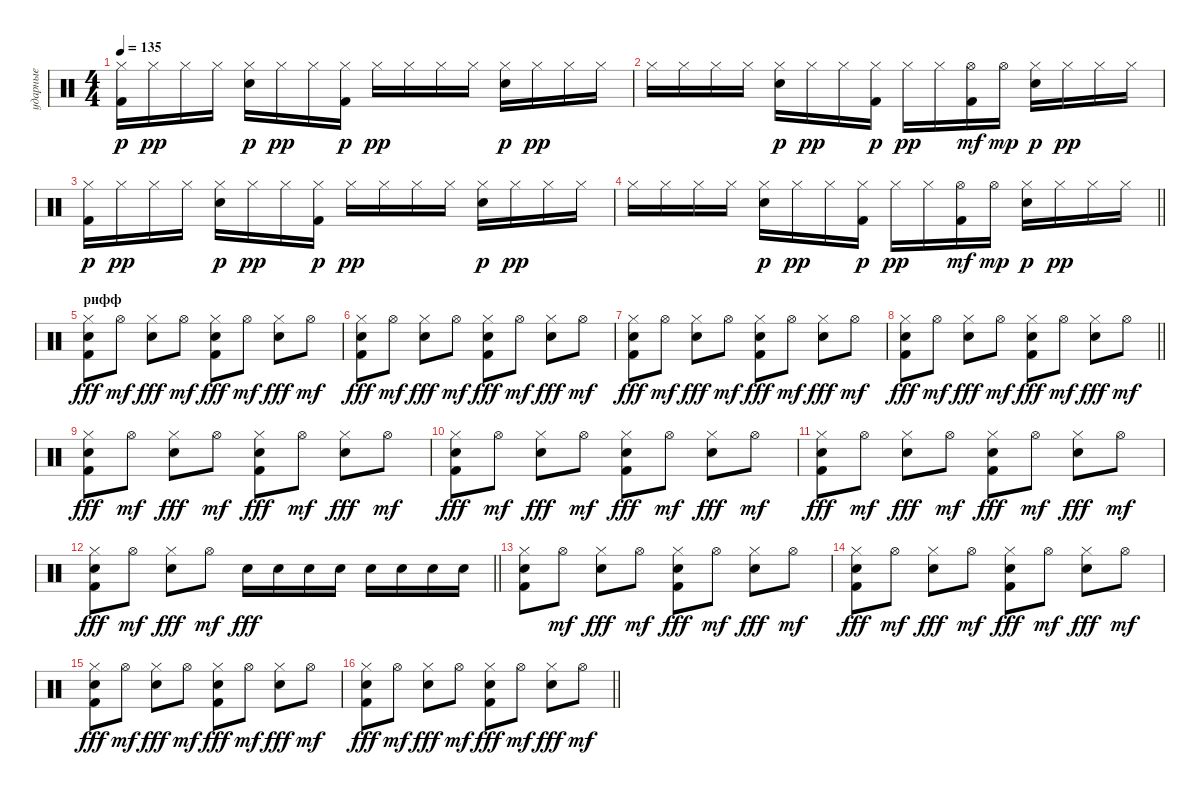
\track ("ударные" "ударные") {instrument percussion}
\staff {score}
\articulation defaults
\ts (4 4)
\tempo 135
\clef neutral
\ks c
("Hi-Hat (closed)" "Kick (hit) 2").16{dy p} "Hi-Hat (closed)".16{dy pp} "Hi-Hat (closed)".16 "Hi-Hat (closed)".16 ("Hi-Hat (closed)" "Electric Snare (hit)").16{dy p} "Hi-Hat (closed)".16{dy pp} "Hi-Hat (closed)".16 ("Hi-Hat (closed)" "Kick (hit) 2").16{dy p} "Hi-Hat (closed)".16{dy pp} "Hi-Hat (closed)".16 "Hi-Hat (closed)".16 "Hi-Hat (closed)".16 ("Hi-Hat (closed)" "Electric Snare (hit)").16{dy p} "Hi-Hat (closed)".16{dy pp} "Hi-Hat (closed)".16 "Hi-Hat (closed)".16 |
"Hi-Hat (closed)".16 "Hi-Hat (closed)".16 "Hi-Hat (closed)".16 "Hi-Hat (closed)".16 ("Hi-Hat (closed)" "Electric Snare (hit)").16{dy p} "Hi-Hat (closed)".16{dy pp} "Hi-Hat (closed)".16 ("Hi-Hat (closed)" "Kick (hit) 2").16{dy p} "Hi-Hat (closed)".16{dy pp} "Hi-Hat (closed)".16 ("Hi-Hat (open)" "Kick (hit) 2").16{dy mf} "Hi-Hat (open)".16{dy mp} ("Hi-Hat (closed)" "Electric Snare (hit)").16{dy p} "Hi-Hat (closed)".16{dy pp} "Hi-Hat (closed)".16 "Hi-Hat (closed)".16 |
("Hi-Hat (closed)" "Kick (hit) 2").16{dy p} "Hi-Hat (closed)".16{dy pp} "Hi-Hat (closed)".16 "Hi-Hat (closed)".16 ("Hi-Hat (closed)" "Electric Snare (hit)").16{dy p} "Hi-Hat (closed)".16{dy pp} "Hi-Hat (closed)".16 ("Hi-Hat (closed)" "Kick (hit) 2").16{dy p} "Hi-Hat (closed)".16{dy pp} "Hi-Hat (closed)".16 "Hi-Hat (closed)".16 "Hi-Hat (closed)".16 ("Hi-Hat (closed)" "Electric Snare (hit)").16{dy p} "Hi-Hat (closed)".16{dy pp} "Hi-Hat (closed)".16 "Hi-Hat (closed)".16 |
\barLineRight lightlight "Hi-Hat (closed)".16 "Hi-Hat (closed)".16 "Hi-Hat (closed)".16 "Hi-Hat (closed)".16
("Hi-Hat (closed)" "Electric Snare (hit)").16{dy p} "Hi-Hat (closed)".16{dy pp} "Hi-Hat (closed)".16 ("Hi-Hat (closed)" "Kick (hit) 2").16{dy p} "Hi-Hat (closed)".16{dy pp} "Hi-Hat (closed)".16 ("Hi-Hat (open)" "Kick (hit) 2").16{dy mf} "Hi-Hat (open)".16{dy mp} ("Hi-Hat (closed)" "Electric Snare (hit)").16{dy p} "Hi-Hat (closed)".16{dy pp} "Hi-Hat (closed)".16 "Hi-Hat (closed)".16 |
\section ("" "рифф")
("Hi-Hat (closed)" "Electric Snare (hit)" "Kick (hit) 2").8{dy fff} "Hi-Hat (open)".8{dy mf} ("Hi-Hat (closed)" "Snare (hit) 2").8{dy fff} "Hi-Hat (open)".8{dy mf} ("Hi-Hat (closed)" "Electric Snare (hit)" "Kick (hit) 2").8{dy fff} "Hi-Hat (open)".8{dy mf} ("Hi-Hat (closed)" "Snare (hit) 2").8{dy fff} "Hi-Hat (open)".8{dy mf} |
("Hi-Hat (closed)" "Electric Snare (hit)" "Kick (hit) 2").8{dy fff} "Hi-Hat (open)".8{dy mf} ("Hi-Hat (closed)" "Snare (hit) 2").8{dy fff} "Hi-Hat (open)".8{dy mf} ("Hi-Hat (closed)" "Electric Snare (hit)" "Kick (hit) 2").8{dy fff} "Hi-Hat (open)".8{dy mf} ("Hi-Hat (closed)" "Snare (hit) 2").8{dy fff} "Hi-Hat (open)".8{dy mf} |
("Hi-Hat (closed)" "Electric Snare (hit)" "Kick (hit) 2").8{dy fff} "Hi-Hat (open)".8{dy mf} ("Hi-Hat (closed)" "Snare (hit) 2").8{dy fff} "Hi-Hat (open)".8{dy mf} ("Hi-Hat (closed)" "Electric Snare (hit)" "Kick (hit) 2").8{dy fff} "Hi-Hat (open)".8{dy mf} ("Hi-Hat (closed)" "Snare (hit) 2").8{dy fff} "Hi-Hat (open)".8{dy mf} |
\barLineRight lightlight
("Hi-Hat (closed)" "Electric Snare (hit)" "Kick (hit) 2").8{dy fff} "Hi-Hat (open)".8{dy mf} ("Hi-Hat (closed)" "Snare (hit) 2").8{dy fff} "Hi-Hat (open)".8{dy mf} ("Hi-Hat (closed)" "Electric Snare (hit)" "Kick (hit) 2").8{dy fff} "Hi-Hat (open)".8{dy mf} ("Hi-Hat (closed)" "Snare (hit) 2").8{dy fff} "Hi-Hat (open)".8{dy mf} |
("Hi-Hat (closed)" "Electric Snare (hit)" "Kick (hit) 2").8{dy fff} "Hi-Hat (open)".8{dy mf} ("Hi-Hat (closed)" "Snare (hit) 2").8{dy fff} "Hi-Hat (open)".8{dy mf} ("Hi-Hat (closed)" "Electric Snare (hit)" "Kick (hit) 2").8{dy fff} "Hi-Hat (open)".8{dy mf} ("Hi-Hat (closed)" "Snare (hit) 2").8{dy fff} "Hi-Hat (open)".8{dy mf} |
("Hi-Hat (closed)" "Electric Snare (hit)" "Kick (hit) 2").8{dy fff} "Hi-Hat (open)".8{dy mf} ("Hi-Hat (closed)" "Snare (hit) 2").8{dy fff} "Hi-Hat (open)".8{dy mf} ("Hi-Hat (closed)" "Electric Snare (hit)" "Kick (hit) 2").8{dy fff} "Hi-Hat (open)".8{dy mf} ("Hi-Hat (closed)" "Snare (hit) 2").8{dy fff} "Hi-Hat (open)".8{dy mf} |
("Hi-Hat (closed)" "Electric Snare (hit)" "Kick (hit) 2").8{dy fff} "Hi-Hat (open)".8{dy mf} ("Hi-Hat (closed)" "Snare (hit) 2").8{dy fff} "Hi-Hat (open)".8{dy mf} ("Hi-Hat (closed)" "Electric Snare (hit)" "Kick (hit) 2").8{dy fff} "Hi-Hat (open)".8{dy mf} ("Hi-Hat (closed)" "Snare (hit) 2").8{dy fff} "Hi-Hat (open)".8{dy mf} |
\barLineRight lightlight
("Hi-Hat (closed)" "Electric Snare (hit)" "Kick (hit) 2").8{dy fff} "Hi-Hat (open)".8{dy mf} ("Hi-Hat (closed)" "Snare (hit) 2").8{dy fff} "Hi-Hat (open)".8{dy mf} "Snare (hit) 2".16{dy fff} "Snare (hit) 2".16 "Snare (hit) 2".16 "Snare (hit) 2".16 "Snare (hit) 2".16 "Snare (hit) 2".16 "Snare (hit) 2".16 "Snare (hit) 2".16 |
("Hi-Hat (closed)" "Electric Snare (hit)" "Kick (hit) 2").8 "Hi-Hat (open)".8{dy mf} ("Hi-Hat (closed)" "Snare (hit) 2").8{dy fff} "Hi-Hat (open)".8{dy mf} ("Hi-Hat (closed)" "Electric Snare (hit)" "Kick (hit) 2").8{dy fff} "Hi-Hat (open)".8{dy mf} ("Hi-Hat (closed)" "Snare (hit) 2").8{dy fff} "Hi-Hat (open)".8{dy mf} |
("Hi-Hat (closed)" "Electric Snare (hit)" "Kick (hit) 2").8{dy fff} "Hi-Hat (open)".8{dy mf} ("Hi-Hat (closed)" "Snare (hit) 2").8{dy fff} "Hi-Hat (open)".8{dy mf} ("Hi-Hat (closed)" "Electric Snare (hit)" "Kick (hit) 2").8{dy fff} "Hi-Hat (open)".8{dy mf} ("Hi-Hat (closed)" "Snare (hit) 2").8{dy fff} "Hi-Hat (open)".8{dy mf} |
("Hi-Hat (closed)" "Electric Snare (hit)" "Kick (hit) 2").8{dy fff} "Hi-Hat (open)".8{dy mf} ("Hi-Hat (closed)" "Snare (hit) 2").8{dy fff} "Hi-Hat (open)".8{dy mf} ("Hi-Hat (closed)" "Electric Snare (hit)" "Kick (hit) 2").8{dy fff} "Hi-Hat (open)".8{dy mf} ("Hi-Hat (closed)" "Snare (hit) 2").8{dy fff} "Hi-Hat (open)".8{dy mf} |
\barLineRight lightlight
("Hi-Hat (closed)" "Electric Snare (hit)" "Kick (hit) 2").8{dy fff} "Hi-Hat (open)".8{dy mf} ("Hi-Hat (closed)" "Snare (hit) 2").8{dy fff} "Hi-Hat (open)".8{dy mf} ("Hi-Hat (closed)" "Electric Snare (hit)" "Kick (hit) 2").8{dy fff} "Hi-Hat (open)".8{dy mf} ("Hi-Hat (closed)" "Snare (hit) 2").8{dy fff} "Hi-Hat (open)".8{dy mf}
